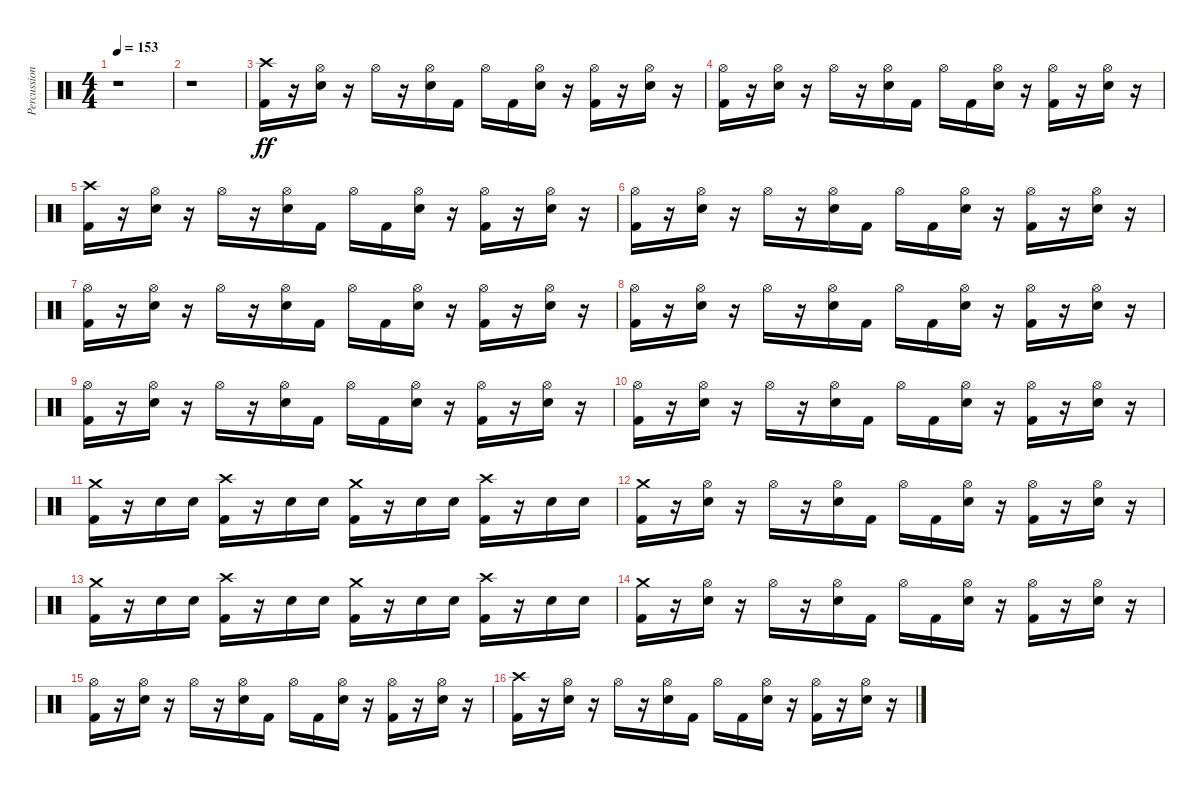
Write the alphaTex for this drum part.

\track ("Percussion" "Percussion") {instrument percussion}
\staff {score}
\articulation defaults
\ts (4 4)
\tempo 153
\clef neutral
\ks c
r.1{dy ff} |
r.1 |
("Kick (hit) 2" "Crash high (hit)").16 r.16 ("Snare (hit) 2" "Hi-Hat (open)").16 r.16 "Hi-Hat (open)".16 r.16 ("Hi-Hat (open)" "Snare (hit) 2").16 "Kick (hit) 2".16 "Hi-Hat (open)".16 "Kick (hit) 2".16 ("Snare (hit) 2" "Hi-Hat (open)").16 r.16 ("Kick (hit) 2" "Hi-Hat (open)").16 r.16 ("Snare (hit) 2" "Hi-Hat (open)").16 r.16 |
("Kick (hit) 2" "Hi-Hat (open)").16 r.16 ("Snare (hit) 2" "Hi-Hat (open)").16 r.16 "Hi-Hat (open)".16 r.16 ("Hi-Hat (open)" "Snare (hit) 2").16 "Kick (hit) 2".16 "Hi-Hat (open)".16 "Kick (hit) 2".16 ("Snare (hit) 2" "Hi-Hat (open)").16 r.16 ("Kick (hit) 2" "Hi-Hat (open)").16 r.16 ("Snare (hit) 2" "Hi-Hat (open)").16 r.16 |
("Crash high (hit)" "Kick (hit) 2").16 r.16 ("Hi-Hat (open)" "Snare (hit) 2").16 r.16 "Hi-Hat (open)".16 r.16 ("Hi-Hat (open)" "Snare (hit) 2").16 "Kick (hit) 2".16 "Hi-Hat (open)".16 "Kick (hit) 2".16 ("Hi-Hat (open)" "Snare (hit) 2").16 r.16 ("Hi-Hat (open)" "Kick (hit) 2").16 r.16 ("Hi-Hat (open)" "Snare (hit) 2").16 r.16 |
("Hi-Hat (open)" "Kick (hit) 2").16 r.16 ("Hi-Hat (open)" "Snare (hit) 2").16 r.16 "Hi-Hat (open)".16 r.16 ("Hi-Hat (open)" "Snare (hit) 2").16 "Kick (hit) 2".16 "Hi-Hat (open)".16 "Kick (hit) 2".16 ("Hi-Hat (open)" "Snare (hit) 2").16 r.16 ("Hi-Hat (open)" "Kick (hit) 2").16 r.16 ("Hi-Hat (open)" "Snare (hit) 2").16 r.16 |
("Kick (hit) 2" "Hi-Hat (open)").16 r.16 ("Snare (hit) 2" "Hi-Hat (open)").16 r.16 "Hi-Hat (open)".16 r.16 ("Hi-Hat (open)" "Snare (hit) 2").16 "Kick (hit) 2".16 "Hi-Hat (open)".16 "Kick (hit) 2".16 ("Snare (hit) 2" "Hi-Hat (open)").16 r.16 ("Kick (hit) 2" "Hi-Hat (open)").16 r.16 ("Snare (hit) 2" "Hi-Hat (open)").16 r.16 |
("Kick (hit) 2" "Hi-Hat (open)").16 r.16 ("Snare (hit) 2" "Hi-Hat (open)").16 r.16 "Hi-Hat (open)".16 r.16 ("Hi-Hat (open)" "Snare (hit) 2").16 "Kick (hit) 2".16 "Hi-Hat (open)".16 "Kick (hit) 2".16 ("Snare (hit) 2" "Hi-Hat (open)").16 r.16 ("Kick (hit) 2" "Hi-Hat (open)").16 r.16 ("Snare (hit) 2" "Hi-Hat (open)").16 r.16 |
("Hi-Hat (open)" "Kick (hit) 2").16 r.16 ("Hi-Hat (open)" "Snare (hit) 2").16 r.16 "Hi-Hat (open)".16 r.16 ("Hi-Hat (open)" "Snare (hit) 2").16 "Kick (hit) 2".16 "Hi-Hat (open)".16 "Kick (hit) 2".16 ("Hi-Hat (open)" "Snare (hit) 2").16 r.16 ("Hi-Hat (open)" "Kick (hit) 2").16 r.16 ("Hi-Hat (open)" "Snare (hit) 2").16 r.16 |
("Hi-Hat (open)" "Kick (hit) 2").16 r.16 ("Hi-Hat (open)" "Snare (hit) 2").16 r.16 "Hi-Hat (open)".16 r.16 ("Hi-Hat (open)" "Snare (hit) 2").16 "Kick (hit) 2".16 "Hi-Hat (open)".16 "Kick (hit) 2".16 ("Hi-Hat (open)" "Snare (hit) 2").16 r.16 ("Hi-Hat (open)" "Kick (hit) 2").16 r.16 ("Hi-Hat (open)" "Snare (hit) 2").16 r.16 |
("Kick (hit) 2" "Crash medium (hit)").16 r.16 "Snare (hit) 2".16 "Snare (hit) 2".16 ("Kick (hit) 2" "Crash high (hit)").16 r.16 "Snare (hit) 2".16 "Snare (hit) 2".16 ("Kick (hit) 2" "Crash medium (hit)").16 r.16 "Snare (hit) 2".16 "Snare (hit) 2".16 ("Kick (hit) 2" "Crash high (hit)").16 r.16 "Snare (hit) 2".16 "Snare (hit) 2".16 |
("Kick (hit) 2" "Crash medium (hit)").16 r.16 ("Snare (hit) 2" "Hi-Hat (open)").16 r.16 "Hi-Hat (open)".16 r.16 ("Hi-Hat (open)" "Snare (hit) 2").16 "Kick (hit) 2".16 "Hi-Hat (open)".16 "Kick (hit) 2".16 ("Snare (hit) 2" "Hi-Hat (open)").16 r.16 ("Kick (hit) 2" "Hi-Hat (open)").16 r.16 ("Snare (hit) 2" "Hi-Hat (open)").16 r.16 |
("Crash medium (hit)" "Kick (hit) 2").16 r.16 "Snare (hit) 2".16 "Snare (hit) 2".16 ("Crash high (hit)" "Kick (hit) 2").16 r.16 "Snare (hit) 2".16 "Snare (hit) 2".16 ("Crash medium (hit)" "Kick (hit) 2").16 r.16 "Snare (hit) 2".16 "Snare (hit) 2".16 ("Crash high (hit)" "Kick (hit) 2").16 r.16 "Snare (hit) 2".16 "Snare (hit) 2".16 |
("Crash medium (hit)" "Kick (hit) 2").16 r.16 ("Hi-Hat (open)" "Snare (hit) 2").16 r.16 "Hi-Hat (open)".16 r.16 ("Hi-Hat (open)" "Snare (hit) 2").16 "Kick (hit) 2".16 "Hi-Hat (open)".16 "Kick (hit) 2".16 ("Hi-Hat (open)" "Snare (hit) 2").16 r.16 ("Hi-Hat (open)" "Kick (hit) 2").16 r.16 ("Hi-Hat (open)" "Snare (hit) 2").16 r.16 |
("Hi-Hat (open)" "Kick (hit) 2").16 r.16 ("Hi-Hat (open)" "Snare (hit) 2").16 r.16 "Hi-Hat (open)".16 r.16 ("Hi-Hat (open)" "Snare (hit) 2").16 "Kick (hit) 2".16 "Hi-Hat (open)".16 "Kick (hit) 2".16 ("Hi-Hat (open)" "Snare (hit) 2").16 r.16 ("Hi-Hat (open)" "Kick (hit) 2").16 r.16 ("Hi-Hat (open)" "Snare (hit) 2").16 r.16 |
("Kick (hit) 2" "Crash high (hit)").16 r.16 ("Snare (hit) 2" "Hi-Hat (open)").16 r.16 "Hi-Hat (open)".16 r.16 ("Hi-Hat (open)" "Snare (hit) 2").16 "Kick (hit) 2".16 "Hi-Hat (open)".16 "Kick (hit) 2".16 ("Snare (hit) 2" "Hi-Hat (open)").16 r.16 ("Kick (hit) 2" "Hi-Hat (open)").16 r.16 ("Snare (hit) 2" "Hi-Hat (open)").16 r.16
